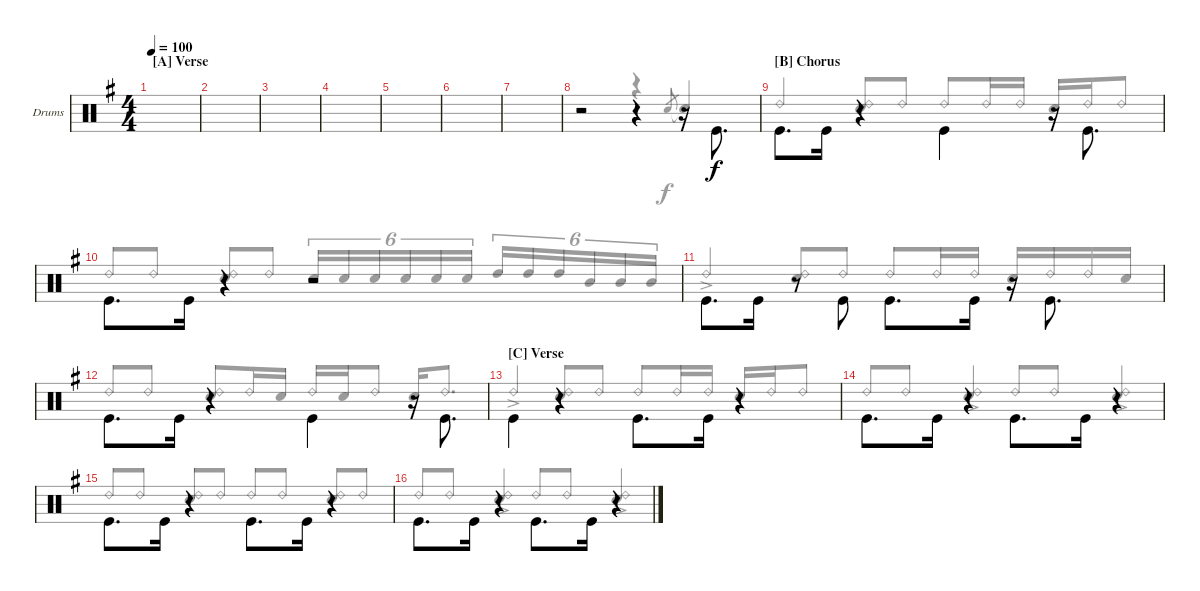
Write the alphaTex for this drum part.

\defaultSystemsLayout 4
\bracketExtendMode groupsimilarinstruments
\firstSystemTrackNameOrientation horizontal
\otherSystemsTrackNameOrientation horizontal
\track ("Drumkit" "Drums") {instrument percussion}
\staff {score}
\articulation defaults
\voice
\ts (4 4)
\beaming (8 2 2 2 2)
\section ("A" "Verse")
\scale
0.653631
\tempo 100
\accidentals auto
\clef neutral
\ottava regular
\simile none
\scale
1.07314
\ks g
|
\scale
0.346369
\scale
0.92686 |
\scale
0.5
\scale
1.04288 |
\scale
0.5
\scale
0.957125 |
\scale
0.5
\scale
1.04288 |
\scale
0.5
\scale
0.957125 |
\scale
0.5
\scale
1.04288 |
\scale
0.5
\scale
0.957125 r.2 r.4{beam invert} r.16{beam invert} "Kick (hit)".8{d beam invert} |
\section ("B" "Chorus")
\scale
0.5
\scale
1.04288 "Kick (hit)".8{d beam invert} "Kick (hit)".16 r.4{beam invert} "Kick (hit)".4{beam invert} r.16{beam invert} "Kick (hit)".8{d beam invert} |
\scale
0.5
\scale
0.957125 "Kick (hit)".8{d beam invert} "Kick (hit)".16 r.4{beam invert} r.2 |
\scale
0.5
\scale
1.04288 "Kick (hit)".8{d} "Kick (hit)".16{beam invert} r.8 "Kick (hit)".8{beam invert} "Kick (hit)".8{d beam invert} "Kick (hit)".16 r.16{beam invert} "Kick (hit)".8{d beam invert} |
\scale
0.5
\scale
0.957125 "Kick (hit)".8{d beam invert} "Kick (hit)".16 r.4{beam invert} "Kick (hit)".4{beam invert} r.16{beam invert} "Kick (hit)".8{d beam invert} |
\section ("C" "Verse")
\scale
0.5
\scale
1.04288 "Kick (hit)".4{beam invert} r.4 "Kick (hit)".8{d beam invert} "Kick (hit)".16 r.4 |
\scale
0.5
\scale
0.957125 "Kick (hit)".8{d beam invert} "Kick (hit)".16 r.4 "Kick (hit)".8{d beam invert} "Kick (hit)".16 r.4 |
\scale
0.5
\scale
1.04288 "Kick (hit)".8{d} "Kick (hit)".16{beam invert} r.4{beam invert} "Kick (hit)".8{d} "Kick (hit)".16{beam invert} r.4 |
\scale
0.5
\scale
0.957125 "Kick (hit)".8{d beam invert} "Kick (hit)".16 r.4 "Kick (hit)".8{d beam invert} "Kick (hit)".16 r.4
\voice
\clef neutral
\ottava regular
\simile none
\scale
1.07314
\ks g
|
\scale
0.92686 |
\scale
1.04288 |
\scale
0.957125 |
\scale
1.04288 |
\scale
0.957125 |
\scale
1.04288 |
\scale
0.957125 r.2 r.4{beam invert} "Snare (hit) 2".8{gr beam invert} "Snare (hit) 2"{t}.4{beam invert} |
\scale
1.04288 "Ride (bell) 2".4{beam invert} ("Ride (bell) 2" "Snare (hit) 2").8 "Ride (bell) 2".8{beam invert} "Ride (bell) 2".8{beam invert} "Ride (bell) 2".16 "Ride (bell) 2".16 "Snare (hit) 2".16{beam invert} "Ride (bell) 2".16{beam invert} "Ride (bell) 2".8{beam invert} |
\scale
0.957125 "Ride (bell) 2".8 "Ride (bell) 2".8{beam invert} ("Ride (bell) 2" "Snare (hit) 2").8{beam invert} "Ride (bell) 2".8 "Snare (hit) 2".16{tu (6 4)} "Snare (hit) 2".16{tu (6 4) beam invert} "Snare (hit) 2".16{tu (6 4)} "Snare (hit) 2".16{tu (6 4)} "Snare (hit) 2".16{tu (6 4)} "Snare (hit) 2".16{tu (6 4)} "High Tom (hit)".16{tu (6 4)} "High Tom (hit)".16{tu (6 4)} "High Tom (hit)".16{tu (6 4)} "Mid Tom (hit)".16{tu (6 4) beam invert} "Mid Tom (hit)".16{tu (6 4)} "Mid Tom (hit)".16{tu (6 4)} |
\scale
1.04288 "Ride (bell) 2"{ac}.4{beam invert} ("Ride (bell) 2" "Snare (hit) 2").8 "Ride (bell) 2".8{beam invert} "Ride (bell) 2".8 "Ride (bell) 2".16{beam invert} "Ride (bell) 2".16 "Snare (hit) 2".16{beam invert} "Ride (bell) 2".16 "Ride (bell) 2".16 "Snare (hit) 2".16 |
\scale
0.957125 "Ride (bell) 2".8{beam invert} "Ride (bell) 2".8 ("Ride (bell) 2" "Snare (hit) 2").8{beam invert} "Ride (bell) 2".16 "Snare (hit) 2".16 "Ride (bell) 2".16 "Snare (hit) 2".16{beam invert} "Ride (bell) 2".8 "Snare (hit) 2".16{beam invert} "Ride (bell) 2".8{d} |
\scale
1.04288 "Ride (bell) 2"{ac}.4{beam invert} ("Ride (bell) 2" "Snare (hit) 2").8{beam invert} "Ride (bell) 2".8 "Ride (bell) 2".8{beam invert} "Ride (bell) 2".16 "Ride (bell) 2".16 "Snare (hit) 2".16{beam invert} "Ride (bell) 2".16 "Ride (bell) 2".8 |
\scale
0.957125 "Ride (bell) 2".8{beam invert} "Ride (bell) 2".8 ("Ride (bell) 2"{ac} "Snare (hit) 2").4{beam invert} "Ride (bell) 2".8{beam invert} "Ride (bell) 2".8 ("Ride (bell) 2"{ac} "Snare (hit) 2").4{beam invert} |
\scale
1.04288 "Ride (bell) 2".8{beam invert} "Ride (bell) 2".8 ("Ride (bell) 2" "Snare (hit) 2").8{beam invert} "Ride (bell) 2".8 "Ride (bell) 2".8 "Ride (bell) 2".8{beam invert} ("Ride (bell) 2" "Snare (hit) 2").8{beam invert} "Ride (bell) 2".8 |
\scale
0.957125 "Ride (bell) 2".8{beam invert} "Ride (bell) 2".8 ("Ride (bell) 2"{ac} "Snare (hit) 2").4{beam invert} "Ride (bell) 2".8{beam invert} "Ride (bell) 2".8 ("Ride (bell) 2"{ac} "Snare (hit) 2").4{beam invert}
